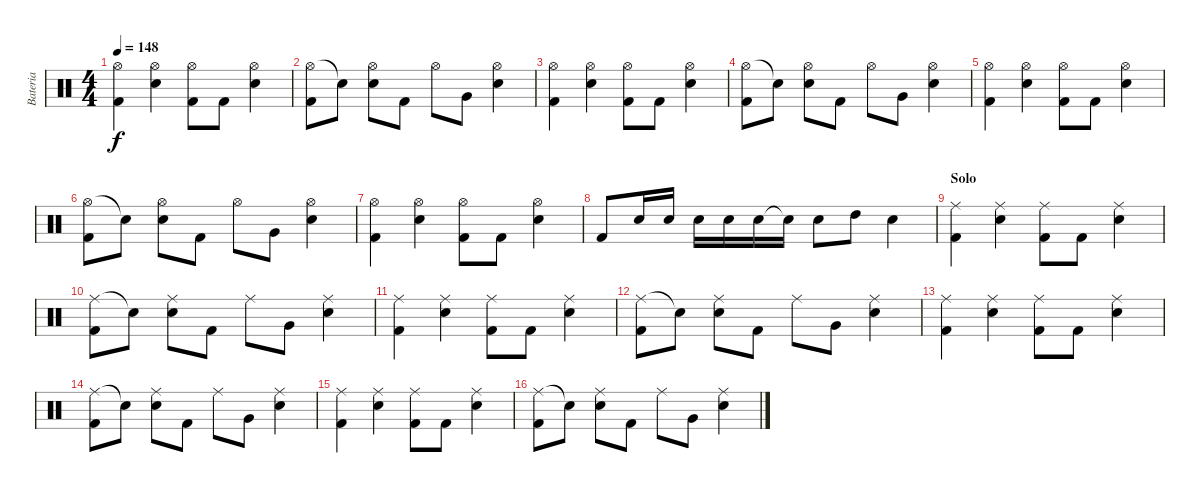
\track ("Bateria" "Bateria") {instrument percussion}
\staff {score}
\articulation defaults
\ts (4 4)
\tempo 148
\clef neutral
\ks c
("Hi-Hat (open)" "Kick (hit) 2").4{dy f} ("Hi-Hat (open)" "Electric Snare (hit)").4 ("Hi-Hat (open)" "Kick (hit) 2").8 "Kick (hit) 2".8 ("Hi-Hat (open)" "Electric Snare (hit)").4 |
("Hi-Hat (open)" "Kick (hit) 2").8 "Snare (hit)"{t}.8 ("Hi-Hat (open)" "Electric Snare (hit)").8 "Kick (hit) 2".8 "Hi-Hat (open)".8 "Very Low Tom (hit)".8 ("Hi-Hat (open)" "Electric Snare (hit)").4 |
("Hi-Hat (open)" "Kick (hit) 2").4 ("Hi-Hat (open)" "Electric Snare (hit)").4 ("Hi-Hat (open)" "Kick (hit) 2").8 "Kick (hit) 2".8 ("Hi-Hat (open)" "Electric Snare (hit)").4 |
("Hi-Hat (open)" "Kick (hit) 2").8 "Snare (hit)"{t}.8 ("Hi-Hat (open)" "Electric Snare (hit)").8 "Kick (hit) 2".8 "Hi-Hat (open)".8 "Very Low Tom (hit)".8 ("Hi-Hat (open)" "Electric Snare (hit)").4 |
("Hi-Hat (open)" "Kick (hit) 2").4 ("Hi-Hat (open)" "Electric Snare (hit)").4 ("Hi-Hat (open)" "Kick (hit) 2").8 "Kick (hit) 2".8 ("Hi-Hat (open)" "Electric Snare (hit)").4 |
("Hi-Hat (open)" "Kick (hit) 2").8 "Snare (hit)"{t}.8 ("Hi-Hat (open)" "Electric Snare (hit)").8 "Kick (hit) 2".8 "Hi-Hat (open)".8 "Very Low Tom (hit)".8 ("Hi-Hat (open)" "Electric Snare (hit)").4 |
("Hi-Hat (open)" "Kick (hit) 2").4 ("Hi-Hat (open)" "Electric Snare (hit)").4 ("Hi-Hat (open)" "Kick (hit) 2").8 "Kick (hit) 2".8 ("Hi-Hat (open)" "Electric Snare (hit)").4 |
"Kick (hit) 2".8 "Electric Snare (hit)".16 "Electric Snare (hit)".16 "Electric Snare (hit)".16 "Electric Snare (hit)".16 "Electric Snare (hit)".16 "Electric Snare (hit)"{t}.16 "Electric Snare (hit)".8 "High Tom (hit)".8 "Electric Snare (hit)".4 |
\section ("" "Solo")
("Ride (middle)" "Kick (hit) 2").4 ("Ride (middle)" "Electric Snare (hit)").4 ("Ride (middle)" "Kick (hit) 2").8 "Kick (hit) 2".8 ("Ride (middle)" "Electric Snare (hit)").4 |
("Ride (middle)" "Kick (hit) 2").8 "Snare (hit)"{t}.8 ("Ride (middle)" "Electric Snare (hit)").8 "Kick (hit) 2".8 "Ride (middle)".8 "Very Low Tom (hit)".8 ("Ride (middle)" "Electric Snare (hit)").4 |
("Ride (middle)" "Kick (hit) 2").4 ("Ride (middle)" "Electric Snare (hit)").4 ("Ride (middle)" "Kick (hit) 2").8 "Kick (hit) 2".8 ("Ride (middle)" "Electric Snare (hit)").4 |
("Ride (middle)" "Kick (hit) 2").8 "Snare (hit)"{t}.8 ("Ride (middle)" "Electric Snare (hit)").8 "Kick (hit) 2".8 "Ride (middle)".8 "Very Low Tom (hit)".8 ("Ride (middle)" "Electric Snare (hit)").4 |
("Ride (middle)" "Kick (hit) 2").4 ("Ride (middle)" "Electric Snare (hit)").4 ("Ride (middle)" "Kick (hit) 2").8 "Kick (hit) 2".8 ("Ride (middle)" "Electric Snare (hit)").4 |
("Ride (middle)" "Kick (hit) 2").8 "Snare (hit)"{t}.8 ("Ride (middle)" "Electric Snare (hit)").8 "Kick (hit) 2".8 "Ride (middle)".8 "Very Low Tom (hit)".8 ("Ride (middle)" "Electric Snare (hit)").4 |
("Ride (middle)" "Kick (hit) 2").4 ("Ride (middle)" "Electric Snare (hit)").4 ("Ride (middle)" "Kick (hit) 2").8 "Kick (hit) 2".8 ("Ride (middle)" "Electric Snare (hit)").4 |
("Ride (middle)" "Kick (hit) 2").8 "Snare (hit)"{t}.8 ("Ride (middle)" "Electric Snare (hit)").8 "Kick (hit) 2".8 "Ride (middle)".8 "Very Low Tom (hit)".8 ("Ride (middle)" "Electric Snare (hit)").4
